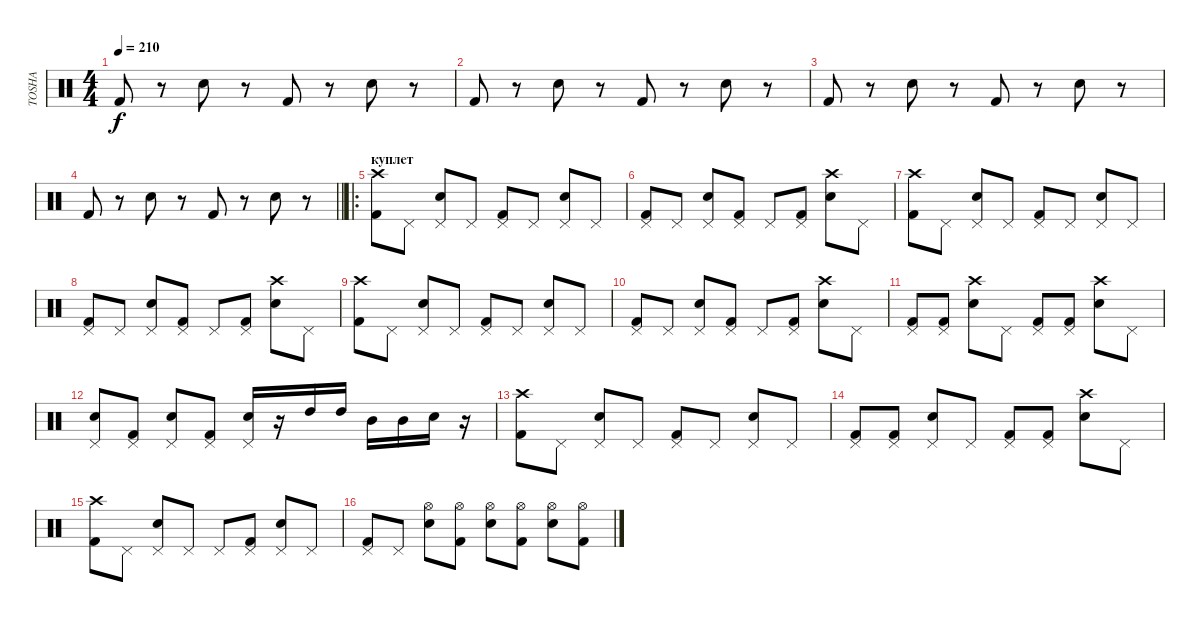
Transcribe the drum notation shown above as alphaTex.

\track ("TOSHA" "TOSHA") {instrument percussion}
\staff {score}
\articulation defaults
\ts (4 4)
\tempo 210
\clef neutral
\ks c "Kick (hit) 2".8{dy f}
r.8 "Electric Snare (hit)".8 r.8 "Kick (hit) 2".8 r.8 "Electric Snare (hit)".8 r.8 |
"Kick (hit) 2".8 r.8 "Electric Snare (hit)".8 r.8 "Kick (hit) 2".8 r.8 "Electric Snare (hit)".8 r.8 |
"Kick (hit) 2".8 r.8 "Electric Snare (hit)".8 r.8 "Kick (hit) 2".8 r.8 "Electric Snare (hit)".8 r.8 |
\barLineRight lightlight "Kick (hit) 2".8
r.8 "Electric Snare (hit)".8 r.8 "Kick (hit) 2".8 r.8 "Electric Snare (hit)".8 r.8 |
\ro
\section ("" "куплет")
("Kick (hit) 2" "Crash high (hit)").8 "Pedal Hi-Hat (hit)".8 ("Electric Snare (hit)" "Pedal Hi-Hat (hit)").8 "Pedal Hi-Hat (hit)".8 ("Kick (hit) 2" "Pedal Hi-Hat (hit)").8 "Pedal Hi-Hat (hit)".8 ("Electric Snare (hit)" "Pedal Hi-Hat (hit)").8 "Pedal Hi-Hat (hit)".8 |
("Kick (hit) 2" "Pedal Hi-Hat (hit)").8 "Pedal Hi-Hat (hit)".8 ("Electric Snare (hit)" "Pedal Hi-Hat (hit)").8 ("Kick (hit) 2" "Pedal Hi-Hat (hit)").8 "Pedal Hi-Hat (hit)".8 ("Kick (hit) 2" "Pedal Hi-Hat (hit)").8 ("Electric Snare (hit)" "Crash high (hit)").8 "Pedal Hi-Hat (hit)".8 |
("Kick (hit) 2" "Crash high (hit)").8 "Pedal Hi-Hat (hit)".8 ("Electric Snare (hit)" "Pedal Hi-Hat (hit)").8 "Pedal Hi-Hat (hit)".8 ("Kick (hit) 2" "Pedal Hi-Hat (hit)").8 "Pedal Hi-Hat (hit)".8 ("Electric Snare (hit)" "Pedal Hi-Hat (hit)").8 "Pedal Hi-Hat (hit)".8 |
("Kick (hit) 2" "Pedal Hi-Hat (hit)").8 "Pedal Hi-Hat (hit)".8 ("Electric Snare (hit)" "Pedal Hi-Hat (hit)").8 ("Kick (hit) 2" "Pedal Hi-Hat (hit)").8 "Pedal Hi-Hat (hit)".8 ("Kick (hit) 2" "Pedal Hi-Hat (hit)").8 ("Electric Snare (hit)" "Crash high (hit)").8 "Pedal Hi-Hat (hit)".8 |
("Kick (hit) 2" "Crash high (hit)").8 "Pedal Hi-Hat (hit)".8 ("Electric Snare (hit)" "Pedal Hi-Hat (hit)").8 "Pedal Hi-Hat (hit)".8 ("Kick (hit) 2" "Pedal Hi-Hat (hit)").8 "Pedal Hi-Hat (hit)".8 ("Electric Snare (hit)" "Pedal Hi-Hat (hit)").8 "Pedal Hi-Hat (hit)".8 |
("Kick (hit) 2" "Pedal Hi-Hat (hit)").8 "Pedal Hi-Hat (hit)".8 ("Electric Snare (hit)" "Pedal Hi-Hat (hit)").8 ("Kick (hit) 2" "Pedal Hi-Hat (hit)").8 "Pedal Hi-Hat (hit)".8 ("Kick (hit) 2" "Pedal Hi-Hat (hit)").8 ("Electric Snare (hit)" "Crash high (hit)").8 "Pedal Hi-Hat (hit)".8 |
("Kick (hit) 2" "Pedal Hi-Hat (hit)").8 ("Kick (hit) 2" "Pedal Hi-Hat (hit)").8 ("Electric Snare (hit)" "Crash high (hit)").8 "Pedal Hi-Hat (hit)".8 ("Kick (hit) 2" "Pedal Hi-Hat (hit)").8 ("Kick (hit) 2" "Pedal Hi-Hat (hit)").8 ("Electric Snare (hit)" "Crash high (hit)").8 "Pedal Hi-Hat (hit)".8 |
("Electric Snare (hit)" "Pedal Hi-Hat (hit)").8 ("Kick (hit) 2" "Pedal Hi-Hat (hit)").8 ("Electric Snare (hit)" "Pedal Hi-Hat (hit)").8 ("Kick (hit) 2" "Pedal Hi-Hat (hit)").8 ("Electric Snare (hit)" "Pedal Hi-Hat (hit)").16 r.16 "High Tom (hit)".16 "High Tom (hit)".16 "Mid Tom (hit)".16 "Mid Tom (hit)".16 "Electric Snare (hit)".16 r.16 |
("Kick (hit) 2" "Crash high (hit)").8 "Pedal Hi-Hat (hit)".8 ("Electric Snare (hit)" "Pedal Hi-Hat (hit)").8 "Pedal Hi-Hat (hit)".8 ("Kick (hit) 2" "Pedal Hi-Hat (hit)").8 "Pedal Hi-Hat (hit)".8 ("Electric Snare (hit)" "Pedal Hi-Hat (hit)").8 "Pedal Hi-Hat (hit)".8 |
("Kick (hit) 2" "Pedal Hi-Hat (hit)").8 ("Kick (hit) 2" "Pedal Hi-Hat (hit)").8 ("Electric Snare (hit)" "Pedal Hi-Hat (hit)").8 "Pedal Hi-Hat (hit)".8 ("Kick (hit) 2" "Pedal Hi-Hat (hit)").8 ("Kick (hit) 2" "Pedal Hi-Hat (hit)").8 ("Electric Snare (hit)" "Crash high (hit)").8 "Pedal Hi-Hat (hit)".8 |
("Kick (hit) 2" "Crash high (hit)").8 "Pedal Hi-Hat (hit)".8 ("Electric Snare (hit)" "Pedal Hi-Hat (hit)").8 "Pedal Hi-Hat (hit)".8 "Pedal Hi-Hat (hit)".8 ("Kick (hit) 2" "Pedal Hi-Hat (hit)").8 ("Electric Snare (hit)" "Pedal Hi-Hat (hit)").8 "Pedal Hi-Hat (hit)".8 |
("Kick (hit) 2" "Pedal Hi-Hat (hit)").8 "Pedal Hi-Hat (hit)".8 ("Electric Snare (hit)" "Hi-Hat (open)").8 ("Kick (hit) 2" "Hi-Hat (open)").8 ("Electric Snare (hit)" "Hi-Hat (open)").8 ("Kick (hit) 2" "Hi-Hat (open)").8 ("Electric Snare (hit)" "Hi-Hat (open)").8 ("Kick (hit) 2" "Hi-Hat (open)").8
